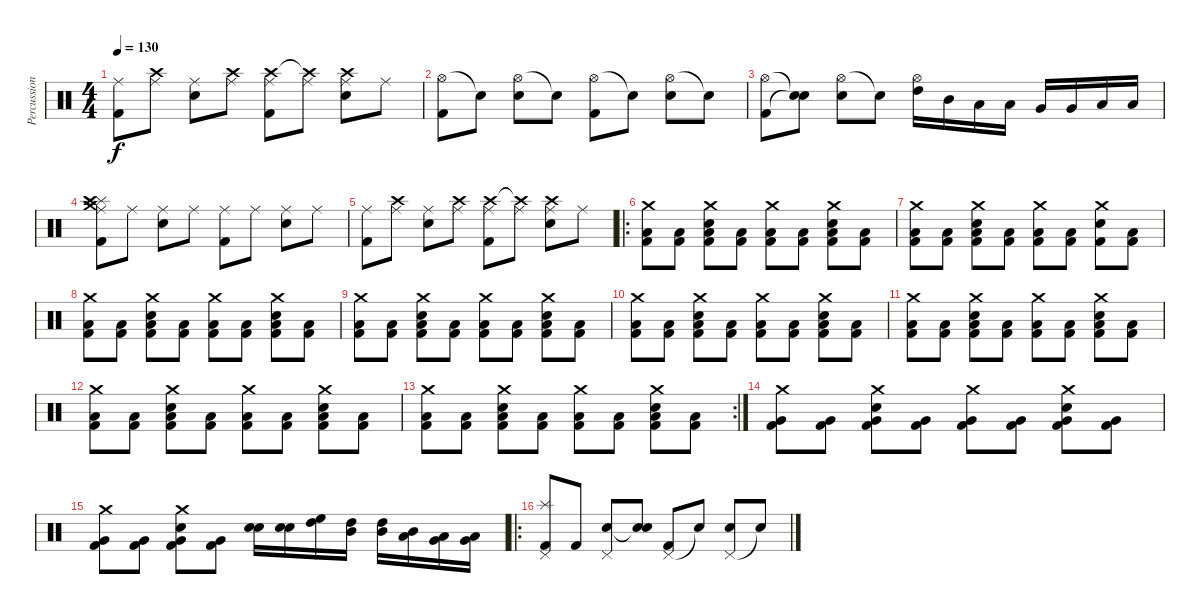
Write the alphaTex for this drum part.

\track ("Percussion" "Percussion") {instrument percussion}
\staff {score}
\articulation defaults
\ts (4 4)
\tempo 130
\clef neutral
\ks c
("Ride (middle)" "Kick (hit) 2").8{dy f} ("Crash high (hit)" "Ride (middle)").8 ("Ride (middle)" "Electric Snare (hit)").8 ("Crash high (hit)" "Ride (middle)").8 ("Crash high (hit)" "Ride (middle)" "Kick (hit) 2").8 ("Crash high (hit)"{t} "Ride (middle)").8 ("Crash high (hit)" "Ride (middle)" "Electric Snare (hit)").8 "Ride (middle)".8 |
("Hi-Hat (open)" "Kick (hit) 2").8 "Snare (hit)"{t}.8 ("Hi-Hat (open)" "Electric Snare (hit)").8 "Snare (hit)"{t}.8 ("Hi-Hat (open)" "Kick (hit) 2").8 "Snare (hit)"{t}.8 ("Hi-Hat (open)" "Electric Snare (hit)").8 "Snare (hit)"{t}.8 |
("Hi-Hat (open)" "Kick (hit) 2").8 ("Snare (hit)"{t} "Snare (hit)"{t}).8 ("Hi-Hat (open)" "Electric Snare (hit)").8 "Snare (hit)"{t}.8 ("Hi-Hat (open)" "High Tom (hit)").16 "Mid Tom (hit)".16 "Low Tom (hit)".16 "Low Tom (hit)".16 "Very Low Tom (hit)".16 "Very Low Tom (hit)".16 "Low Floor Tom (hit)".16 "Low Floor Tom (hit)".16 |
("Splash (hit)" "Crash high (hit)" "Crash medium (hit)" "Ride (middle)" "Kick (hit) 2").8 "Ride (middle)".8 ("Ride (middle)" "Electric Snare (hit)").8 "Ride (middle)".8 ("Ride (middle)" "Kick (hit) 2").8 "Ride (middle)".8 ("Ride (middle)" "Electric Snare (hit)").8 "Ride (middle)".8 |
("Ride (middle)" "Kick (hit) 2").8 ("Crash high (hit)" "Ride (middle)").8 ("Ride (middle)" "Electric Snare (hit)").8 ("Crash high (hit)" "Ride (middle)").8 ("Crash high (hit)" "Ride (middle)" "Kick (hit) 2").8 ("Crash high (hit)"{t} "Ride (middle)").8 ("Crash high (hit)" "Ride (middle)" "Electric Snare (hit)").8 "Ride (middle)".8 |
\ro
("Crash medium (hit)" "Low Floor Tom (hit)" "Kick (hit) 2").8 ("Low Floor Tom (hit)" "Kick (hit) 2").8 ("Crash medium (hit)" "Low Floor Tom (hit)" "Electric Snare (hit)" "Kick (hit) 2").8 ("Low Floor Tom (hit)" "Kick (hit) 2").8 ("Crash medium (hit)" "Low Floor Tom (hit)" "Kick (hit) 2").8 ("Low Floor Tom (hit)" "Kick (hit) 2").8 ("Crash medium (hit)" "Low Floor Tom (hit)" "Electric Snare (hit)" "Kick (hit) 2").8 ("Low Floor Tom (hit)" "Kick (hit) 2").8 |
("Crash medium (hit)" "Low Floor Tom (hit)" "Kick (hit) 2").8 ("Low Floor Tom (hit)" "Kick (hit) 2").8 ("Crash medium (hit)" "Low Floor Tom (hit)" "Electric Snare (hit)" "Kick (hit) 2").8 ("Low Floor Tom (hit)" "Kick (hit) 2").8 ("Crash medium (hit)" "Low Floor Tom (hit)" "Kick (hit) 2").8 ("Low Floor Tom (hit)" "Kick (hit) 2").8 ("Crash medium (hit)" "Electric Snare (hit)" "Kick (hit) 2").8 ("Low Floor Tom (hit)" "Kick (hit) 2").8 |
("Crash medium (hit)" "Low Floor Tom (hit)" "Kick (hit) 2").8 ("Low Floor Tom (hit)" "Kick (hit) 2").8 ("Crash medium (hit)" "Low Floor Tom (hit)" "Electric Snare (hit)" "Kick (hit) 2").8 ("Low Floor Tom (hit)" "Kick (hit) 2").8 ("Crash medium (hit)" "Low Floor Tom (hit)" "Kick (hit) 2").8 ("Low Floor Tom (hit)" "Kick (hit) 2").8 ("Crash medium (hit)" "Low Floor Tom (hit)" "Electric Snare (hit)" "Kick (hit) 2").8 ("Low Floor Tom (hit)" "Kick (hit) 2").8 |
("Crash medium (hit)" "Low Floor Tom (hit)" "Kick (hit) 2").8 ("Low Floor Tom (hit)" "Kick (hit) 2").8 ("Crash medium (hit)" "Low Floor Tom (hit)" "Electric Snare (hit)" "Kick (hit) 2").8 ("Low Floor Tom (hit)" "Kick (hit) 2").8 ("Crash medium (hit)" "Low Floor Tom (hit)" "Kick (hit) 2").8 ("Low Floor Tom (hit)" "Kick (hit) 2").8 ("Crash medium (hit)" "Low Floor Tom (hit)" "Electric Snare (hit)" "Kick (hit) 2").8 ("Low Floor Tom (hit)" "Kick (hit) 2").8 |
("Crash medium (hit)" "Low Floor Tom (hit)" "Kick (hit) 2").8 ("Low Floor Tom (hit)" "Kick (hit) 2").8 ("Crash medium (hit)" "Low Floor Tom (hit)" "Electric Snare (hit)" "Kick (hit) 2").8 ("Low Floor Tom (hit)" "Kick (hit) 2").8 ("Crash medium (hit)" "Low Floor Tom (hit)" "Kick (hit) 2").8 ("Low Floor Tom (hit)" "Kick (hit) 2").8 ("Crash medium (hit)" "Low Floor Tom (hit)" "Electric Snare (hit)" "Kick (hit) 2").8 ("Low Floor Tom (hit)" "Kick (hit) 2").8 |
("Crash medium (hit)" "Low Floor Tom (hit)" "Kick (hit) 2").8 ("Low Floor Tom (hit)" "Kick (hit) 2").8 ("Crash medium (hit)" "Low Floor Tom (hit)" "Electric Snare (hit)" "Kick (hit) 2").8 ("Low Floor Tom (hit)" "Kick (hit) 2").8 ("Crash medium (hit)" "Low Floor Tom (hit)" "Kick (hit) 2").8 ("Low Floor Tom (hit)" "Kick (hit) 2").8 ("Crash medium (hit)" "Low Floor Tom (hit)" "Electric Snare (hit)" "Kick (hit) 2").8 ("Low Floor Tom (hit)" "Kick (hit) 2").8 |
("Crash medium (hit)" "Low Floor Tom (hit)" "Kick (hit) 2").8 ("Low Floor Tom (hit)" "Kick (hit) 2").8 ("Crash medium (hit)" "Low Floor Tom (hit)" "Electric Snare (hit)" "Kick (hit) 2").8 ("Low Floor Tom (hit)" "Kick (hit) 2").8 ("Crash medium (hit)" "Low Floor Tom (hit)" "Kick (hit) 2").8 ("Low Floor Tom (hit)" "Kick (hit) 2").8 ("Crash medium (hit)" "Low Floor Tom (hit)" "Electric Snare (hit)" "Kick (hit) 2").8 ("Low Floor Tom (hit)" "Kick (hit) 2").8 |
\rc 2
("Crash medium (hit)" "Low Floor Tom (hit)" "Kick (hit) 2").8 ("Low Floor Tom (hit)" "Kick (hit) 2").8 ("Crash medium (hit)" "Low Floor Tom (hit)" "Electric Snare (hit)" "Kick (hit) 2").8 ("Low Floor Tom (hit)" "Kick (hit) 2").8 ("Crash medium (hit)" "Low Floor Tom (hit)" "Kick (hit) 2").8 ("Low Floor Tom (hit)" "Kick (hit) 2").8 ("Crash medium (hit)" "Low Floor Tom (hit)" "Electric Snare (hit)" "Kick (hit) 2").8 ("Low Floor Tom (hit)" "Kick (hit) 2").8 |
("Crash medium (hit)" "Very Low Tom (hit)" "Kick (hit) 2").8 ("Very Low Tom (hit)" "Kick (hit) 2").8 ("Crash medium (hit)" "Very Low Tom (hit)" "Electric Snare (hit)" "Kick (hit) 2").8 ("Very Low Tom (hit)" "Kick (hit) 2").8 ("Crash medium (hit)" "Very Low Tom (hit)" "Kick (hit) 2").8 ("Very Low Tom (hit)" "Kick (hit) 2").8 ("Crash medium (hit)" "Very Low Tom (hit)" "Electric Snare (hit)" "Kick (hit) 2").8 ("Very Low Tom (hit)" "Kick (hit) 2").8 |
("Crash medium (hit)" "Very Low Tom (hit)" "Kick (hit) 2").8 ("Very Low Tom (hit)" "Kick (hit) 2").8 ("Crash medium (hit)" "Very Low Tom (hit)" "Electric Snare (hit)" "Kick (hit) 2").8 ("Very Low Tom (hit)" "Kick (hit) 2").8 ("Electric Snare (hit)" "Electric Snare (hit)").16 ("Electric Snare (hit)" "Electric Snare (hit)").16 ("High Tom (hit)" "High Floor Tom (hit)").16 ("High Tom (hit)" "Mid Tom (hit)").16 ("Mid Tom (hit)" "High Tom (hit)").16 ("Low Tom (hit)" "Mid Tom (hit)").16 ("Very Low Tom (hit)" "Low Tom (hit)").16 ("Low Floor Tom (hit)" "Very Low Tom (hit)").16 |
\ro
("Splash (hit)" "Pedal Hi-Hat (hit)" "Kick (hit) 2").8 "Kick (hit) 2".8 ("Pedal Hi-Hat (hit)" "Electric Snare (hit)").8 ("Snare (hit)" "Snare (hit)"{t}).8 ("Pedal Hi-Hat (hit)" "Kick (hit) 2").8 "Snare (hit)"{t}.8 ("Pedal Hi-Hat (hit)" "Electric Snare (hit)").8 "Snare (hit)"{t}.8
